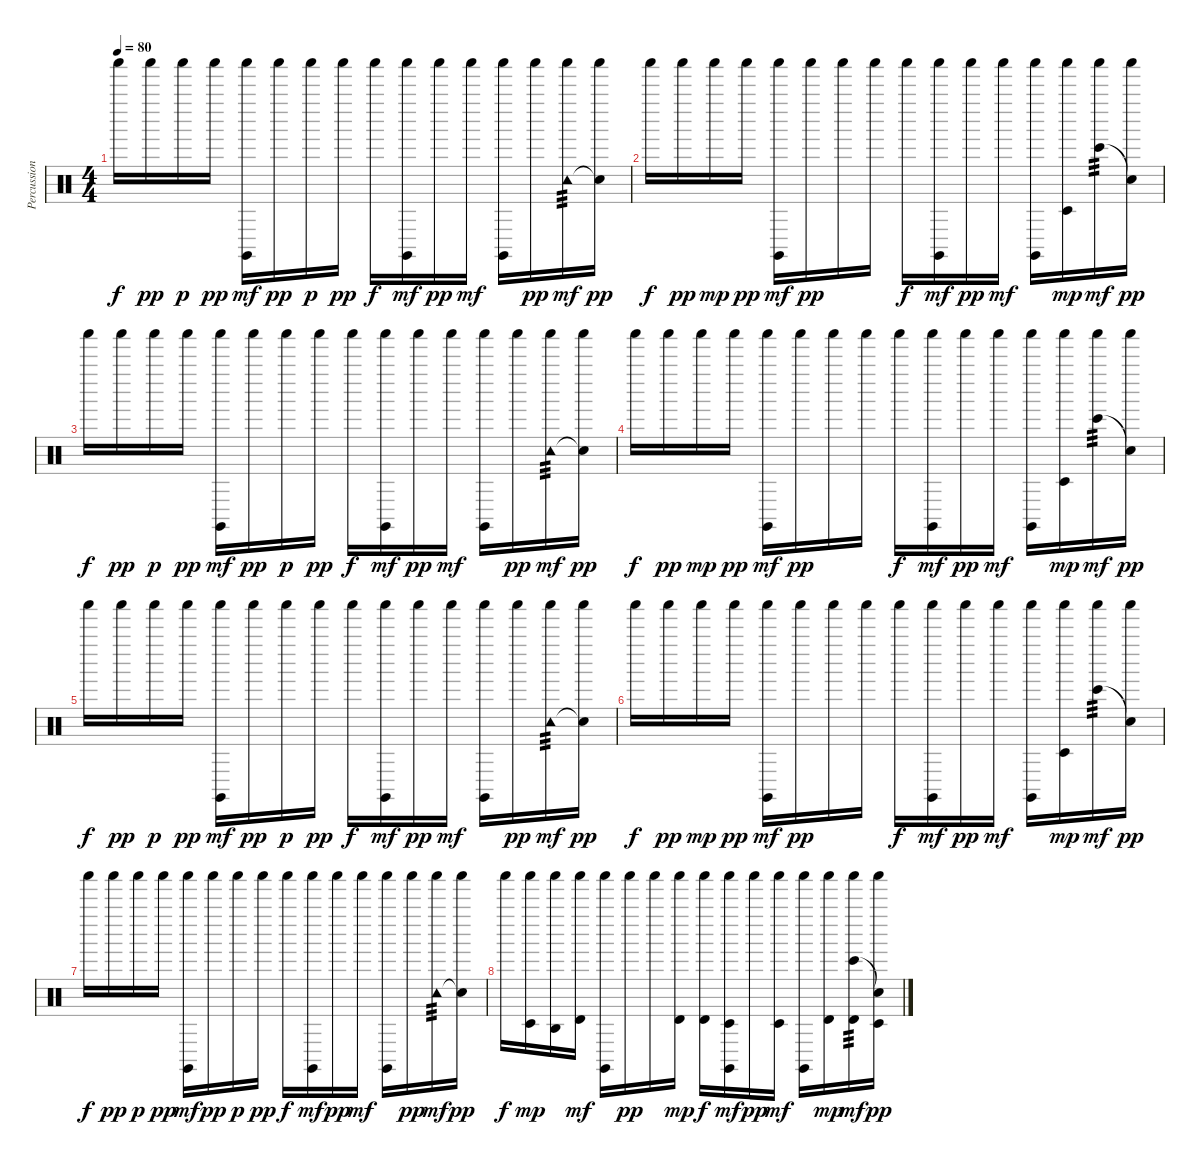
\track ("Percussion" "Percussion") {instrument percussion}
\staff {score}
\articulation defaults
\ts (4 4)
\tempo 80
\clef neutral
\ks c "Shaker (hit)".16{dy f} "Shaker (hit)".16{dy pp} "Shaker (hit)".16{dy p} "Shaker (hit)".16{dy pp}
("Shaker (hit)" "Claves (hit)").16{dy mf} "Shaker (hit)".16{dy pp} "Shaker (hit)".16{dy p} "Shaker (hit)".16{dy pp} "Shaker (hit)".16{dy f} ("Shaker (hit)" "Claves (hit)").16{dy mf} "Shaker (hit)".16{dy pp} "Shaker (hit)".16{dy mf} ("Shaker (hit)" "Claves (hit)").16 "Shaker (hit)".16{dy pp} ("Shaker (hit)" "Tambourine (hit)").16{tp 3 dy mf} ("Shaker (hit)" "Snare (hit)"{t}).16{dy pp} |
"Shaker (hit)".16{dy f} "Shaker (hit)".16{dy pp} "Shaker (hit)".16{dy mp} "Shaker (hit)".16{dy pp} ("Shaker (hit)" "Claves (hit)").16{dy mf} "Shaker (hit)".16{dy pp} "Shaker (hit)".16 "Shaker (hit)".16 "Shaker (hit)".16{dy f} ("Shaker (hit)" "Claves (hit)").16{dy mf} "Shaker (hit)".16{dy pp} "Shaker (hit)".16{dy mf} ("Shaker (hit)" "Claves (hit)").16 ("Shaker (hit)" "Timbale low (hit)").16{dy mp} ("Shaker (hit)" "Bongo High (hit)").16{tp 3 dy mf} ("Shaker (hit)" "Snare (hit)"{t}).16{dy pp} |
"Shaker (hit)".16{dy f} "Shaker (hit)".16{dy pp} "Shaker (hit)".16{dy p} "Shaker (hit)".16{dy pp} ("Shaker (hit)" "Claves (hit)").16{dy mf} "Shaker (hit)".16{dy pp} "Shaker (hit)".16{dy p} "Shaker (hit)".16{dy pp} "Shaker (hit)".16{dy f} ("Shaker (hit)" "Claves (hit)").16{dy mf} "Shaker (hit)".16{dy pp} "Shaker (hit)".16{dy mf} ("Shaker (hit)" "Claves (hit)").16 "Shaker (hit)".16{dy pp} ("Shaker (hit)" "Tambourine (hit)").16{tp 3 dy mf} ("Shaker (hit)" "Snare (hit)"{t}).16{dy pp} |
"Shaker (hit)".16{dy f} "Shaker (hit)".16{dy pp} "Shaker (hit)".16{dy mp} "Shaker (hit)".16{dy pp} ("Shaker (hit)" "Claves (hit)").16{dy mf} "Shaker (hit)".16{dy pp} "Shaker (hit)".16 "Shaker (hit)".16 "Shaker (hit)".16{dy f} ("Shaker (hit)" "Claves (hit)").16{dy mf} "Shaker (hit)".16{dy pp} "Shaker (hit)".16{dy mf} ("Shaker (hit)" "Claves (hit)").16 ("Shaker (hit)" "Timbale low (hit)").16{dy mp} ("Shaker (hit)" "Bongo High (hit)").16{tp 3 dy mf} ("Shaker (hit)" "Snare (hit)"{t}).16{dy pp} |
"Shaker (hit)".16{dy f} "Shaker (hit)".16{dy pp} "Shaker (hit)".16{dy p} "Shaker (hit)".16{dy pp} ("Shaker (hit)" "Claves (hit)").16{dy mf} "Shaker (hit)".16{dy pp} "Shaker (hit)".16{dy p} "Shaker (hit)".16{dy pp} "Shaker (hit)".16{dy f} ("Shaker (hit)" "Claves (hit)").16{dy mf} "Shaker (hit)".16{dy pp} "Shaker (hit)".16{dy mf} ("Shaker (hit)" "Claves (hit)").16 "Shaker (hit)".16{dy pp} ("Shaker (hit)" "Tambourine (hit)").16{tp 3 dy mf} ("Shaker (hit)" "Snare (hit)"{t}).16{dy pp} |
"Shaker (hit)".16{dy f} "Shaker (hit)".16{dy pp} "Shaker (hit)".16{dy mp} "Shaker (hit)".16{dy pp} ("Shaker (hit)" "Claves (hit)").16{dy mf} "Shaker (hit)".16{dy pp} "Shaker (hit)".16 "Shaker (hit)".16 "Shaker (hit)".16{dy f} ("Shaker (hit)" "Claves (hit)").16{dy mf} "Shaker (hit)".16{dy pp} "Shaker (hit)".16{dy mf} ("Shaker (hit)" "Claves (hit)").16 ("Shaker (hit)" "Timbale low (hit)").16{dy mp} ("Shaker (hit)" "Bongo High (hit)").16{tp 3 dy mf} ("Shaker (hit)" "Snare (hit)"{t}).16{dy pp} |
"Shaker (hit)".16{dy f} "Shaker (hit)".16{dy pp} "Shaker (hit)".16{dy p} "Shaker (hit)".16{dy pp} ("Shaker (hit)" "Claves (hit)").16{dy mf} "Shaker (hit)".16{dy pp} "Shaker (hit)".16{dy p} "Shaker (hit)".16{dy pp} "Shaker (hit)".16{dy f} ("Shaker (hit)" "Claves (hit)").16{dy mf} "Shaker (hit)".16{dy pp} "Shaker (hit)".16{dy mf} ("Shaker (hit)" "Claves (hit)").16 "Shaker (hit)".16{dy pp} ("Shaker (hit)" "Tambourine (hit)").16{tp 3 dy mf} ("Shaker (hit)" "Snare (hit)"{t}).16{dy pp} |
"Shaker (hit)".16{dy f} ("Shaker (hit)" "Timbale low (hit)").16{dy mp} ("Shaker (hit)" "Agogo high (hit)").16 ("Shaker (hit)" "Timbale high (hit)").16{dy mf} ("Shaker (hit)" "Claves (hit)").16 "Shaker (hit)".16{dy pp} "Shaker (hit)".16 ("Shaker (hit)" "Timbale high (hit)").16{dy mp} ("Shaker (hit)" "Timbale high (hit)").16{dy f} ("Shaker (hit)" "Claves (hit)" "Timbale low (hit)").16{dy mf} "Shaker (hit)".16{dy pp} ("Shaker (hit)" "Timbale low (hit)").16{dy mf} ("Shaker (hit)" "Claves (hit)").16 ("Shaker (hit)" "Timbale high (hit)").16{dy mp} ("Shaker (hit)" "Timbale high (hit)" "Bongo High (hit)").16{tp 3 dy mf} ("Shaker (hit)" "Timbale low (hit)" "Snare (hit)"{t}).16{dy pp}
